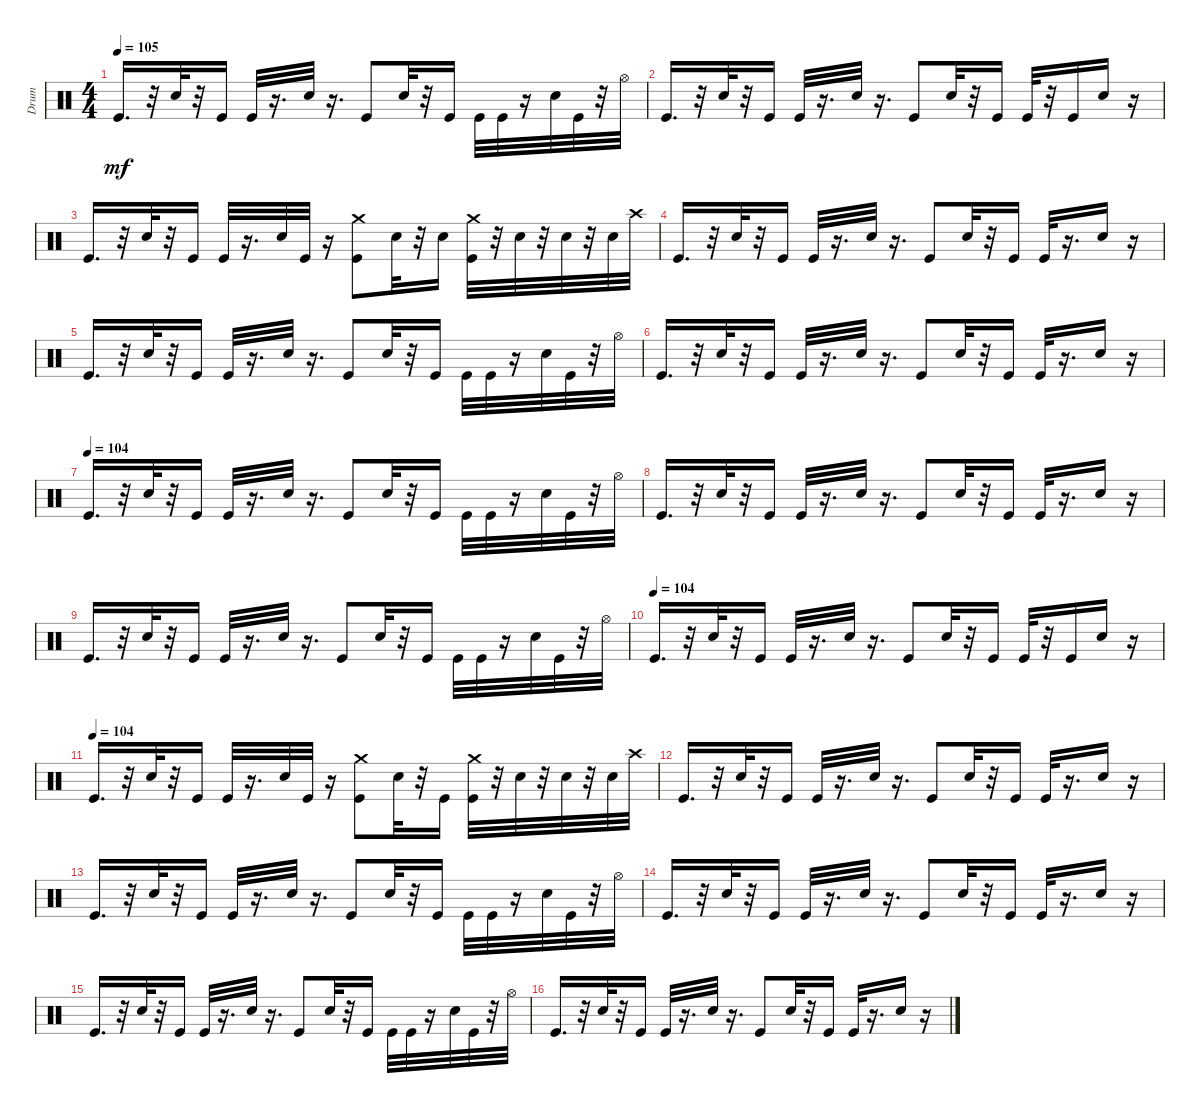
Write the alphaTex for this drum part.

\track ("Drum" "Drum") {instrument percussion}
\staff {score}
\articulation defaults
\ts (4 4)
\tempo 105
\clef neutral
\ks c "Kick (hit)".16{d dy mf}
r.32 "Snare (hit) 2".32 r.32 "Kick (hit)".16 "Kick (hit)".32 r.16{d} "Snare (hit) 2".32 r.16{d} "Kick (hit)".8 "Snare (hit) 2".32 r.32 "Kick (hit)".16 "Kick (hit)".32 "Kick (hit)".32 r.16 "Snare (hit) 2".32 "Kick (hit)".32 r.32 "Hi-Hat (open)".32 |
"Kick (hit)".16{d} r.32 "Snare (hit) 2".32 r.32 "Kick (hit)".16 "Kick (hit)".32 r.16{d} "Snare (hit) 2".32 r.16{d} "Kick (hit)".8 "Snare (hit) 2".32 r.32 "Kick (hit)".16 "Kick (hit)".32 r.32 "Kick (hit)".16 "Snare (hit) 2".16 r.16 |
"Kick (hit)".16{d} r.32 "Snare (hit) 2".32 r.32 "Kick (hit)".16 "Kick (hit)".32 r.16{d} "Snare (hit) 2".32 "Kick (hit)".32 r.16 ("Crash medium (hit)" "Kick (hit)").8 "Snare (hit) 2".32 r.32 "Snare (hit) 2".16 ("Crash medium (hit)" "Kick (hit)").32 r.32 "Snare (hit) 2".32 r.32 "Snare (hit) 2".32 r.32 "Snare (hit) 2".32 "Crash high (hit)".32 |
"Kick (hit)".16{d} r.32 "Snare (hit) 2".32 r.32 "Kick (hit)".16 "Kick (hit)".32 r.16{d} "Snare (hit) 2".32 r.16{d} "Kick (hit)".8 "Snare (hit) 2".32 r.32 "Kick (hit)".16 "Kick (hit)".32 r.16{d} "Snare (hit) 2".16 r.16 |
"Kick (hit)".16{d} r.32 "Snare (hit) 2".32 r.32 "Kick (hit)".16 "Kick (hit)".32 r.16{d} "Snare (hit) 2".32 r.16{d} "Kick (hit)".8 "Snare (hit) 2".32 r.32 "Kick (hit)".16 "Kick (hit)".32 "Kick (hit)".32 r.16 "Snare (hit) 2".32 "Kick (hit)".32 r.32 "Hi-Hat (open)".32 |
"Kick (hit)".16{d} r.32 "Snare (hit) 2".32 r.32 "Kick (hit)".16 "Kick (hit)".32 r.16{d} "Snare (hit) 2".32 r.16{d} "Kick (hit)".8 "Snare (hit) 2".32 r.32 "Kick (hit)".16 "Kick (hit)".32 r.16{d} "Snare (hit) 2".16 r.16 |
\tempo (104)
"Kick (hit)".16{d} r.32 "Snare (hit) 2".32 r.32 "Kick (hit)".16 "Kick (hit)".32 r.16{d} "Snare (hit) 2".32 r.16{d} "Kick (hit)".8 "Snare (hit) 2".32 r.32 "Kick (hit)".16 "Kick (hit)".32 "Kick (hit)".32 r.16 "Snare (hit) 2".32 "Kick (hit)".32 r.32 "Hi-Hat (open)".32 |
"Kick (hit)".16{d} r.32 "Snare (hit) 2".32 r.32 "Kick (hit)".16 "Kick (hit)".32 r.16{d} "Snare (hit) 2".32 r.16{d} "Kick (hit)".8 "Snare (hit) 2".32 r.32 "Kick (hit)".16 "Kick (hit)".32 r.16{d} "Snare (hit) 2".16 r.16 |
"Kick (hit)".16{d} r.32 "Snare (hit) 2".32 r.32 "Kick (hit)".16 "Kick (hit)".32 r.16{d} "Snare (hit) 2".32 r.16{d} "Kick (hit)".8 "Snare (hit) 2".32 r.32 "Kick (hit)".16 "Kick (hit)".32 "Kick (hit)".32 r.16 "Snare (hit) 2".32 "Kick (hit)".32 r.32 "Hi-Hat (open)".32 |
\tempo (104)
"Kick (hit)".16{d} r.32 "Snare (hit) 2".32 r.32 "Kick (hit)".16 "Kick (hit)".32 r.16{d} "Snare (hit) 2".32 r.16{d} "Kick (hit)".8 "Snare (hit) 2".32 r.32 "Kick (hit)".16 "Kick (hit)".32 r.32 "Kick (hit)".16 "Snare (hit) 2".16 r.16 |
\tempo (104)
"Kick (hit)".16{d} r.32 "Snare (hit) 2".32 r.32 "Kick (hit)".16 "Kick (hit)".32 r.16{d} "Snare (hit) 2".32 "Kick (hit)".32 r.16 ("Crash medium (hit)" "Kick (hit)").8 "Snare (hit) 2".32 r.32 "Kick (hit)".16 ("Crash medium (hit)" "Kick (hit)").32 r.32 "Snare (hit) 2".32 r.32 "Snare (hit) 2".32 r.32 "Snare (hit) 2".32 "Crash high (hit)".32 |
"Kick (hit)".16{d} r.32 "Snare (hit) 2".32 r.32 "Kick (hit)".16 "Kick (hit)".32 r.16{d} "Snare (hit) 2".32 r.16{d} "Kick (hit)".8 "Snare (hit) 2".32 r.32 "Kick (hit)".16 "Kick (hit)".32 r.16{d} "Snare (hit) 2".16 r.16 |
"Kick (hit)".16{d} r.32 "Snare (hit) 2".32 r.32 "Kick (hit)".16 "Kick (hit)".32 r.16{d} "Snare (hit) 2".32 r.16{d} "Kick (hit)".8 "Snare (hit) 2".32 r.32 "Kick (hit)".16 "Kick (hit)".32 "Kick (hit)".32 r.16 "Snare (hit) 2".32 "Kick (hit)".32 r.32 "Hi-Hat (open)".32 |
"Kick (hit)".16{d} r.32 "Snare (hit) 2".32 r.32 "Kick (hit)".16 "Kick (hit)".32 r.16{d} "Snare (hit) 2".32 r.16{d} "Kick (hit)".8 "Snare (hit) 2".32 r.32 "Kick (hit)".16 "Kick (hit)".32 r.16{d} "Snare (hit) 2".16 r.16 |
"Kick (hit)".16{d} r.32 "Snare (hit) 2".32 r.32 "Kick (hit)".16 "Kick (hit)".32 r.16{d} "Snare (hit) 2".32 r.16{d} "Kick (hit)".8 "Snare (hit) 2".32 r.32 "Kick (hit)".16 "Kick (hit)".32 "Kick (hit)".32 r.16 "Snare (hit) 2".32 "Kick (hit)".32 r.32 "Hi-Hat (open)".32 |
"Kick (hit)".16{d} r.32 "Snare (hit) 2".32 r.32 "Kick (hit)".16 "Kick (hit)".32 r.16{d} "Snare (hit) 2".32 r.16{d} "Kick (hit)".8 "Snare (hit) 2".32 r.32 "Kick (hit)".16 "Kick (hit)".32 r.16{d} "Snare (hit) 2".16 r.16
